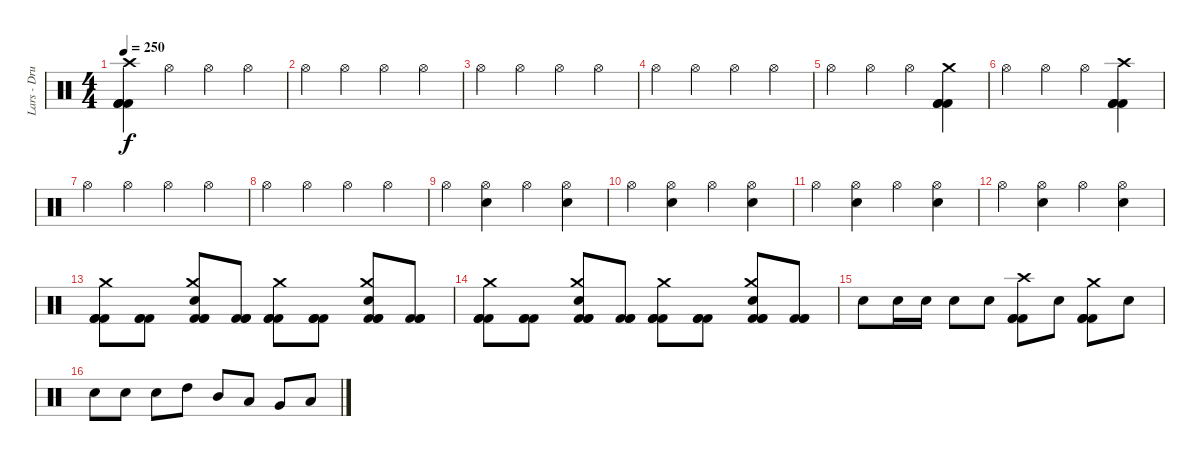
\track ("Lars - Drums" "Lars - Dru") {instrument percussion}
\staff {score}
\articulation defaults
\ts (4 4)
\tempo 250
\clef neutral
\ks c
("Crash high (hit)" "Kick (hit) 2" "Kick (hit) 2" "Kick (hit) 2").4{dy f} "Hi-Hat (open)".4 "Hi-Hat (open)".4 "Hi-Hat (open)".4 |
"Hi-Hat (open)".4 "Hi-Hat (open)".4 "Hi-Hat (open)".4 "Hi-Hat (open)".4 |
"Hi-Hat (open)".4 "Hi-Hat (open)".4 "Hi-Hat (open)".4 "Hi-Hat (open)".4 |
"Hi-Hat (open)".4 "Hi-Hat (open)".4 "Hi-Hat (open)".4 "Hi-Hat (open)".4 |
"Hi-Hat (open)".4 "Hi-Hat (open)".4 "Hi-Hat (open)".4 ("Crash medium (hit)" "Kick (hit) 2" "Kick (hit) 2" "Kick (hit) 2").4 |
"Hi-Hat (open)".4 "Hi-Hat (open)".4 "Hi-Hat (open)".4 ("Crash high (hit)" "Kick (hit) 2" "Kick (hit) 2" "Kick (hit) 2").4 |
"Hi-Hat (open)".4 "Hi-Hat (open)".4 "Hi-Hat (open)".4 "Hi-Hat (open)".4 |
"Hi-Hat (open)".4 "Hi-Hat (open)".4 "Hi-Hat (open)".4 "Hi-Hat (open)".4 |
"Hi-Hat (open)".4 ("Hi-Hat (open)" "Snare (hit) 2").4 "Hi-Hat (open)".4 ("Hi-Hat (open)" "Snare (hit) 2").4 |
"Hi-Hat (open)".4 ("Hi-Hat (open)" "Snare (hit) 2").4 "Hi-Hat (open)".4 ("Hi-Hat (open)" "Snare (hit) 2").4 |
"Hi-Hat (open)".4 ("Hi-Hat (open)" "Snare (hit) 2").4 "Hi-Hat (open)".4 ("Hi-Hat (open)" "Snare (hit) 2").4 |
"Hi-Hat (open)".4 ("Hi-Hat (open)" "Snare (hit) 2").4 "Hi-Hat (open)".4 ("Hi-Hat (open)" "Snare (hit) 2").4 |
("Crash medium (hit)" "Kick (hit) 2" "Kick (hit) 2" "Kick (hit) 2").8 ("Kick (hit) 2" "Kick (hit) 2" "Kick (hit) 2").8 ("Crash medium (hit)" "Snare (hit) 2" "Kick (hit) 2" "Kick (hit) 2" "Kick (hit) 2").8 ("Kick (hit) 2" "Kick (hit) 2" "Kick (hit) 2").8 ("Crash medium (hit)" "Kick (hit) 2" "Kick (hit) 2" "Kick (hit) 2").8 ("Kick (hit) 2" "Kick (hit) 2" "Kick (hit) 2").8 ("Crash medium (hit)" "Snare (hit) 2" "Kick (hit) 2" "Kick (hit) 2" "Kick (hit) 2").8 ("Kick (hit) 2" "Kick (hit) 2" "Kick (hit) 2").8 |
("Crash medium (hit)" "Kick (hit) 2" "Kick (hit) 2" "Kick (hit) 2").8 ("Kick (hit) 2" "Kick (hit) 2" "Kick (hit) 2").8 ("Crash medium (hit)" "Snare (hit) 2" "Kick (hit) 2" "Kick (hit) 2" "Kick (hit) 2").8 ("Kick (hit) 2" "Kick (hit) 2" "Kick (hit) 2").8 ("Crash medium (hit)" "Kick (hit) 2" "Kick (hit) 2" "Kick (hit) 2").8 ("Kick (hit) 2" "Kick (hit) 2" "Kick (hit) 2").8 ("Crash medium (hit)" "Snare (hit) 2" "Kick (hit) 2" "Kick (hit) 2" "Kick (hit) 2").8 ("Kick (hit) 2" "Kick (hit) 2" "Kick (hit) 2").8 |
"Snare (hit) 2".8 "Snare (hit) 2".16 "Snare (hit) 2".16 "Snare (hit) 2".8 "Snare (hit) 2".8 ("Crash high (hit)" "Kick (hit) 2" "Kick (hit) 2" "Kick (hit) 2").8 "Snare (hit) 2".8 ("Crash medium (hit)" "Kick (hit) 2" "Kick (hit) 2" "Kick (hit) 2").8 "Snare (hit) 2".8 |
"Snare (hit) 2".8 "Snare (hit) 2".8 "Snare (hit) 2".8 "High Tom (hit)".8 "Mid Tom (hit)".8 "Low Tom (hit)".8 "Very Low Tom (hit)".8 "Low Floor Tom (hit)".8
